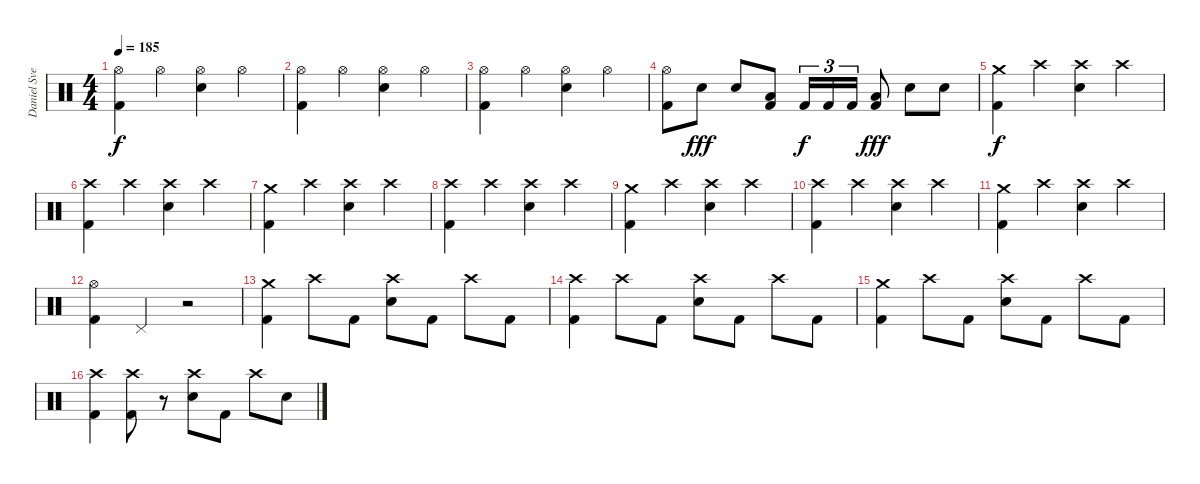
\track ("Daniel Svensson" "Daniel Sve") {instrument percussion}
\staff {score}
\articulation defaults
\ts (4 4)
\tempo 185
\clef neutral
\ks c
("Kick (hit) 2" "Hi-Hat (open)").4{dy f} "Hi-Hat (open)".4 ("Electric Snare (hit)" "Hi-Hat (open)").4 "Hi-Hat (open)".4 |
("Kick (hit) 2" "Hi-Hat (open)").4 "Hi-Hat (open)".4 ("Electric Snare (hit)" "Hi-Hat (open)").4 "Hi-Hat (open)".4 |
("Kick (hit) 2" "Hi-Hat (open)").4 "Hi-Hat (open)".4 ("Electric Snare (hit)" "Hi-Hat (open)").4 "Hi-Hat (open)".4 |
("Kick (hit) 2" "Hi-Hat (open)").8 "Electric Snare (hit)".8{dy fff} "Electric Snare (hit)".8 ("Kick (hit) 2" "Low Tom (hit)").8 "Kick (hit) 2".16{tu (3 2) dy f} "Kick (hit) 2".16{tu (3 2)} "Kick (hit) 2".16{tu (3 2)} ("Kick (hit) 2" "Low Tom (hit)").8{dy fff} "Electric Snare (hit)".8 "Electric Snare (hit)".8 |
("Kick (hit) 2" "Crash medium (hit)").4{dy f} "Crash high (hit)".4 ("Electric Snare (hit)" "Crash high (hit)").4 "Crash high (hit)".4 |
("Kick (hit) 2" "Crash high (hit)").4 "Crash high (hit)".4 ("Electric Snare (hit)" "Crash high (hit)").4 "Crash high (hit)".4 |
("Kick (hit) 2" "Crash medium (hit)").4 "Crash high (hit)".4 ("Electric Snare (hit)" "Crash high (hit)").4 "Crash high (hit)".4 |
("Kick (hit) 2" "Crash high (hit)").4 "Crash high (hit)".4 ("Electric Snare (hit)" "Crash high (hit)").4 "Crash high (hit)".4 |
("Kick (hit) 2" "Crash medium (hit)").4 "Crash high (hit)".4 ("Electric Snare (hit)" "Crash high (hit)").4 "Crash high (hit)".4 |
("Kick (hit) 2" "Crash high (hit)").4 "Crash high (hit)".4 ("Electric Snare (hit)" "Crash high (hit)").4 "Crash high (hit)".4 |
("Kick (hit) 2" "Crash medium (hit)").4 "Crash high (hit)".4 ("Electric Snare (hit)" "Crash high (hit)").4 "Crash high (hit)".4 |
("Kick (hit) 2" "Hi-Hat (open)").4 "Pedal Hi-Hat (hit)".4 r.2 |
("Kick (hit) 2" "Crash medium (hit)").4 "Crash high (hit)".8 "Kick (hit) 2".8 ("Electric Snare (hit)" "Crash high (hit)").8 "Kick (hit) 2".8 "Crash high (hit)".8 "Kick (hit) 2".8 |
("Kick (hit) 2" "Crash high (hit)").4 "Crash high (hit)".8 "Kick (hit) 2".8 ("Electric Snare (hit)" "Crash high (hit)").8 "Kick (hit) 2".8 "Crash high (hit)".8 "Kick (hit) 2".8 |
("Kick (hit) 2" "Crash medium (hit)").4 "Crash high (hit)".8 "Kick (hit) 2".8 ("Electric Snare (hit)" "Crash high (hit)").8 "Kick (hit) 2".8 "Crash high (hit)".8 "Kick (hit) 2".8 |
("Kick (hit) 2" "Crash high (hit)").4 ("Kick (hit) 2" "Crash high (hit)").8 r.8 ("Electric Snare (hit)" "Crash high (hit)").8 "Kick (hit) 2".8 "Crash high (hit)".8 "Electric Snare (hit)".8
